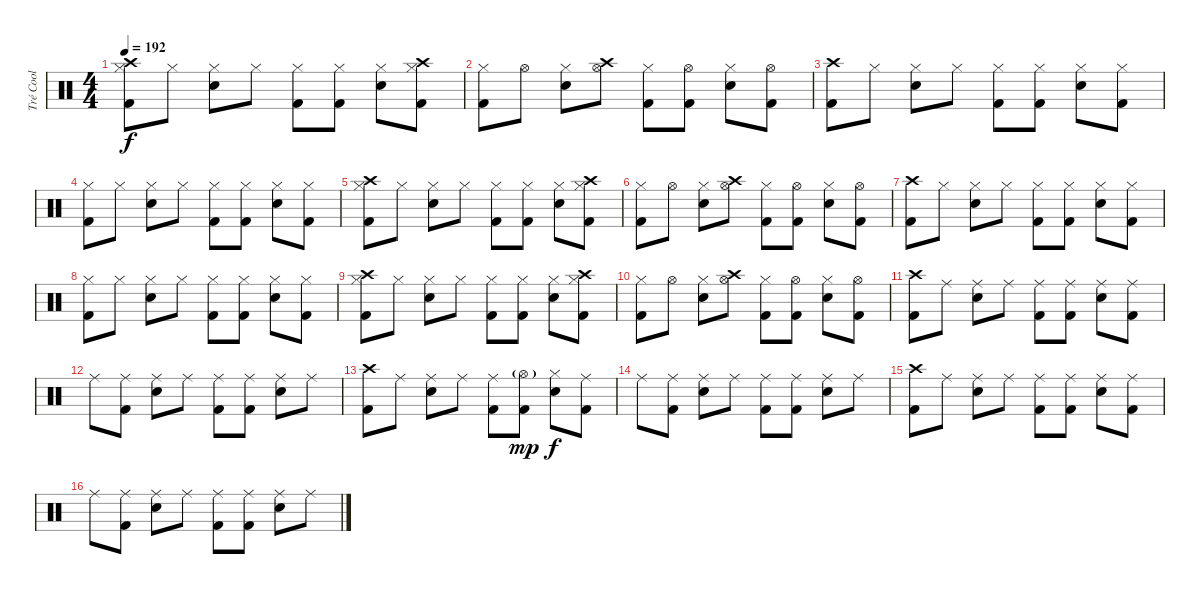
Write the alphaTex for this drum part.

\track ("Tré Cool" "Tré Cool") {solo instrument percussion}
\staff {score}
\articulation defaults
\ts (4 4)
\tempo 192
\clef neutral
\ks c
("Hi-Hat (closed)" "Kick (hit) 2" "Crash high (hit)").8{dy f} "Hi-Hat (closed)".8 ("Hi-Hat (closed)" "Electric Snare (hit)").8 "Hi-Hat (closed)".8 ("Hi-Hat (closed)" "Kick (hit) 2").8 ("Hi-Hat (closed)" "Kick (hit) 2").8 ("Hi-Hat (closed)" "Electric Snare (hit)").8 ("Hi-Hat (closed)" "Kick (hit) 2" "Crash high (hit)").8 |
("Hi-Hat (closed)" "Kick (hit) 2").8 "Hi-Hat (open)".8 ("Hi-Hat (closed)" "Electric Snare (hit)").8 ("Hi-Hat (open)" "Crash high (hit)").8 ("Hi-Hat (closed)" "Kick (hit) 2").8 ("Hi-Hat (open)" "Kick (hit) 2").8 ("Hi-Hat (closed)" "Electric Snare (hit)").8 ("Hi-Hat (open)" "Kick (hit) 2").8 |
("Kick (hit) 2" "Crash high (hit)").8 "Hi-Hat (closed)".8 ("Hi-Hat (closed)" "Electric Snare (hit)").8 "Hi-Hat (closed)".8 ("Hi-Hat (closed)" "Kick (hit) 2").8 ("Hi-Hat (closed)" "Kick (hit) 2").8 ("Hi-Hat (closed)" "Electric Snare (hit)").8 ("Hi-Hat (closed)" "Kick (hit) 2").8 |
("Hi-Hat (closed)" "Kick (hit) 2").8 "Hi-Hat (closed)".8 ("Hi-Hat (closed)" "Electric Snare (hit)").8 "Hi-Hat (closed)".8 ("Hi-Hat (closed)" "Kick (hit) 2").8 ("Hi-Hat (closed)" "Kick (hit) 2").8 ("Hi-Hat (closed)" "Electric Snare (hit)").8 ("Hi-Hat (closed)" "Kick (hit) 2").8 |
("Hi-Hat (closed)" "Kick (hit) 2" "Crash high (hit)").8 "Hi-Hat (closed)".8 ("Hi-Hat (closed)" "Electric Snare (hit)").8 "Hi-Hat (closed)".8 ("Hi-Hat (closed)" "Kick (hit) 2").8 ("Hi-Hat (closed)" "Kick (hit) 2").8 ("Hi-Hat (closed)" "Electric Snare (hit)").8 ("Hi-Hat (closed)" "Kick (hit) 2" "Crash high (hit)").8 |
("Hi-Hat (closed)" "Kick (hit) 2").8 "Hi-Hat (open)".8 ("Hi-Hat (closed)" "Electric Snare (hit)").8 ("Hi-Hat (open)" "Crash high (hit)").8 ("Hi-Hat (closed)" "Kick (hit) 2").8 ("Hi-Hat (open)" "Kick (hit) 2").8 ("Hi-Hat (closed)" "Electric Snare (hit)").8 ("Hi-Hat (open)" "Kick (hit) 2").8 |
("Kick (hit) 2" "Crash high (hit)").8 "Hi-Hat (closed)".8 ("Hi-Hat (closed)" "Electric Snare (hit)").8 "Hi-Hat (closed)".8 ("Hi-Hat (closed)" "Kick (hit) 2").8 ("Hi-Hat (closed)" "Kick (hit) 2").8 ("Hi-Hat (closed)" "Electric Snare (hit)").8 ("Hi-Hat (closed)" "Kick (hit) 2").8 |
("Hi-Hat (closed)" "Kick (hit) 2").8 "Hi-Hat (closed)".8 ("Hi-Hat (closed)" "Electric Snare (hit)").8 "Hi-Hat (closed)".8 ("Hi-Hat (closed)" "Kick (hit) 2").8 ("Hi-Hat (closed)" "Kick (hit) 2").8 ("Hi-Hat (closed)" "Electric Snare (hit)").8 ("Hi-Hat (closed)" "Kick (hit) 2").8 |
("Hi-Hat (closed)" "Kick (hit) 2" "Crash high (hit)").8 "Hi-Hat (closed)".8 ("Hi-Hat (closed)" "Electric Snare (hit)").8 "Hi-Hat (closed)".8 ("Hi-Hat (closed)" "Kick (hit) 2").8 ("Hi-Hat (closed)" "Kick (hit) 2").8 ("Hi-Hat (closed)" "Electric Snare (hit)").8 ("Hi-Hat (closed)" "Kick (hit) 2" "Crash high (hit)").8 |
("Hi-Hat (closed)" "Kick (hit) 2").8 "Hi-Hat (open)".8 ("Hi-Hat (closed)" "Electric Snare (hit)").8 ("Hi-Hat (open)" "Crash high (hit)").8 ("Hi-Hat (closed)" "Kick (hit) 2").8 ("Hi-Hat (open)" "Kick (hit) 2").8 ("Hi-Hat (closed)" "Electric Snare (hit)").8 ("Hi-Hat (open)" "Kick (hit) 2").8 |
("Kick (hit) 2" "Crash high (hit)").8 "Ride (middle)".8 ("Ride (middle)" "Electric Snare (hit)").8 "Ride (middle)".8 ("Ride (middle)" "Kick (hit) 2").8 ("Ride (middle)" "Kick (hit) 2").8 ("Ride (middle)" "Electric Snare (hit)").8 ("Ride (middle)" "Kick (hit) 2").8 |
"Ride (middle)".8 ("Ride (middle)" "Kick (hit) 2").8 ("Ride (middle)" "Electric Snare (hit)").8 "Ride (middle)".8 ("Ride (middle)" "Kick (hit) 2").8 ("Ride (middle)" "Kick (hit) 2").8 ("Ride (middle)" "Electric Snare (hit)").8 "Ride (middle)".8 |
("Kick (hit) 2" "Crash high (hit)").8 "Ride (middle)".8 ("Ride (middle)" "Electric Snare (hit)").8 "Ride (middle)".8 ("Ride (middle)" "Kick (hit) 2").8 ("Hi-Hat (open)"{g} "Kick (hit) 2").8{dy mp} ("Hi-Hat (closed)" "Electric Snare (hit)").8{dy f} ("Ride (middle)" "Kick (hit) 2").8 |
"Ride (middle)".8 ("Ride (middle)" "Kick (hit) 2").8 ("Ride (middle)" "Electric Snare (hit)").8 "Ride (middle)".8 ("Ride (middle)" "Kick (hit) 2").8 ("Ride (middle)" "Kick (hit) 2").8 ("Ride (middle)" "Electric Snare (hit)").8 "Ride (middle)".8 |
("Kick (hit) 2" "Crash high (hit)").8 "Ride (middle)".8 ("Ride (middle)" "Electric Snare (hit)").8 "Ride (middle)".8 ("Ride (middle)" "Kick (hit) 2").8 ("Ride (middle)" "Kick (hit) 2").8 ("Ride (middle)" "Electric Snare (hit)").8 ("Ride (middle)" "Kick (hit) 2").8 |
"Ride (middle)".8 ("Ride (middle)" "Kick (hit) 2").8 ("Ride (middle)" "Electric Snare (hit)").8 "Ride (middle)".8 ("Ride (middle)" "Kick (hit) 2").8 ("Ride (middle)" "Kick (hit) 2").8 ("Ride (middle)" "Electric Snare (hit)").8 "Ride (middle)".8
